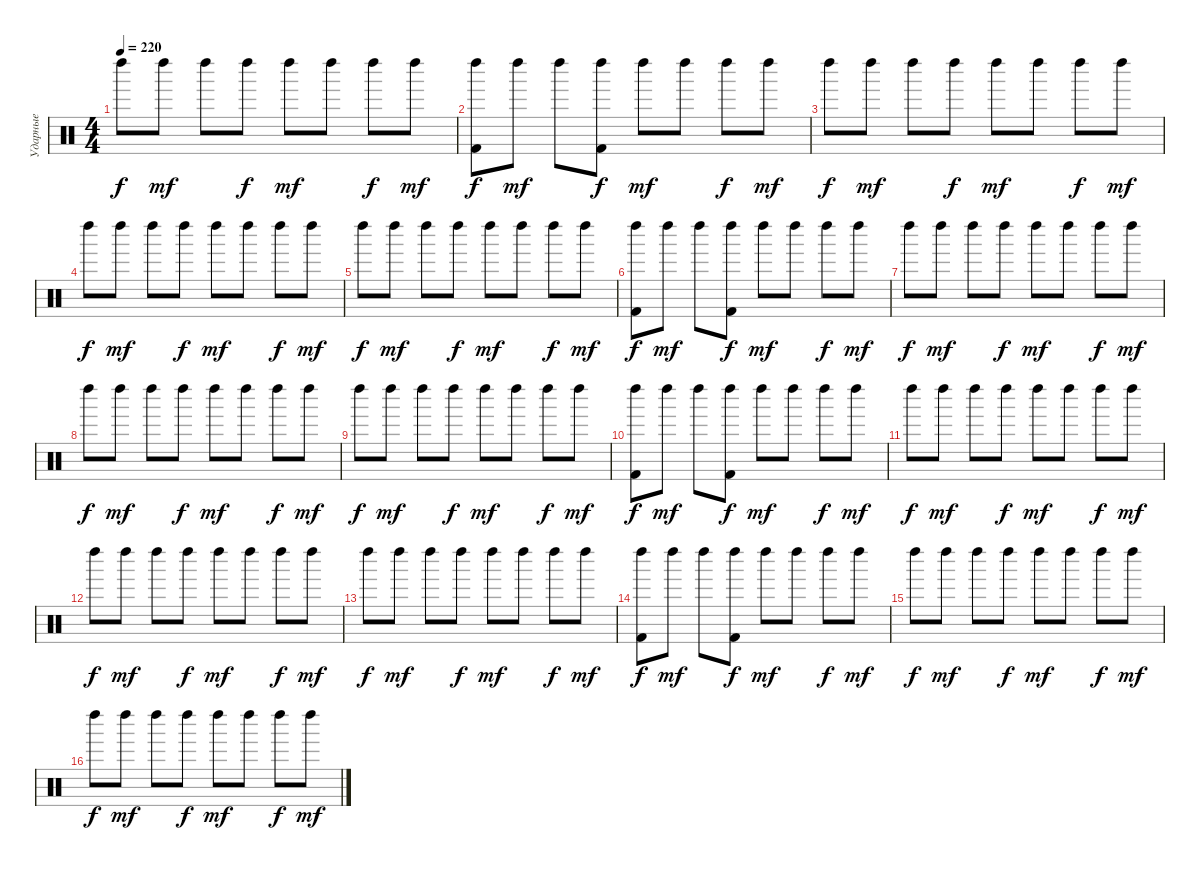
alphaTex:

\track ("Ударные" "Ударные") {instrument percussion}
\staff {score}
\articulation defaults
\ts (4 4)
\tempo 220
\clef neutral
\ks c "Left Maraca (hit)".8{dy f} "Left Maraca (hit)".8{dy mf} "Left Maraca (hit)".8 "Left Maraca (hit)".8{dy f} "Left Maraca (hit)".8{dy mf} "Left Maraca (hit)".8 "Left Maraca (hit)".8{dy f} "Left Maraca (hit)".8{dy mf}
|
("Kick (hit) 2" "Left Maraca (hit)").8{dy f} "Left Maraca (hit)".8{dy mf} "Left Maraca (hit)".8 ("Kick (hit) 2" "Left Maraca (hit)").8{dy f} "Left Maraca (hit)".8{dy mf} "Left Maraca (hit)".8 "Left Maraca (hit)".8{dy f} "Left Maraca (hit)".8{dy mf} |
"Left Maraca (hit)".8{dy f} "Left Maraca (hit)".8{dy mf} "Left Maraca (hit)".8 "Left Maraca (hit)".8{dy f} "Left Maraca (hit)".8{dy mf} "Left Maraca (hit)".8 "Left Maraca (hit)".8{dy f} "Left Maraca (hit)".8{dy mf} |
"Left Maraca (hit)".8{dy f} "Left Maraca (hit)".8{dy mf} "Left Maraca (hit)".8 "Left Maraca (hit)".8{dy f} "Left Maraca (hit)".8{dy mf} "Left Maraca (hit)".8 "Left Maraca (hit)".8{dy f} "Left Maraca (hit)".8{dy mf} |
"Left Maraca (hit)".8{dy f} "Left Maraca (hit)".8{dy mf} "Left Maraca (hit)".8 "Left Maraca (hit)".8{dy f} "Left Maraca (hit)".8{dy mf} "Left Maraca (hit)".8 "Left Maraca (hit)".8{dy f} "Left Maraca (hit)".8{dy mf} |
("Left Maraca (hit)" "Kick (hit) 2").8{dy f} "Left Maraca (hit)".8{dy mf} "Left Maraca (hit)".8 ("Left Maraca (hit)" "Kick (hit) 2").8{dy f} "Left Maraca (hit)".8{dy mf} "Left Maraca (hit)".8 "Left Maraca (hit)".8{dy f} "Left Maraca (hit)".8{dy mf} |
"Left Maraca (hit)".8{dy f} "Left Maraca (hit)".8{dy mf} "Left Maraca (hit)".8 "Left Maraca (hit)".8{dy f} "Left Maraca (hit)".8{dy mf} "Left Maraca (hit)".8 "Left Maraca (hit)".8{dy f} "Left Maraca (hit)".8{dy mf} |
"Left Maraca (hit)".8{dy f} "Left Maraca (hit)".8{dy mf} "Left Maraca (hit)".8 "Left Maraca (hit)".8{dy f} "Left Maraca (hit)".8{dy mf} "Left Maraca (hit)".8 "Left Maraca (hit)".8{dy f} "Left Maraca (hit)".8{dy mf} |
"Left Maraca (hit)".8{dy f} "Left Maraca (hit)".8{dy mf} "Left Maraca (hit)".8 "Left Maraca (hit)".8{dy f} "Left Maraca (hit)".8{dy mf} "Left Maraca (hit)".8 "Left Maraca (hit)".8{dy f} "Left Maraca (hit)".8{dy mf} |
("Kick (hit) 2" "Left Maraca (hit)").8{dy f} "Left Maraca (hit)".8{dy mf} "Left Maraca (hit)".8 ("Kick (hit) 2" "Left Maraca (hit)").8{dy f} "Left Maraca (hit)".8{dy mf} "Left Maraca (hit)".8 "Left Maraca (hit)".8{dy f} "Left Maraca (hit)".8{dy mf} |
"Left Maraca (hit)".8{dy f} "Left Maraca (hit)".8{dy mf} "Left Maraca (hit)".8 "Left Maraca (hit)".8{dy f} "Left Maraca (hit)".8{dy mf} "Left Maraca (hit)".8 "Left Maraca (hit)".8{dy f} "Left Maraca (hit)".8{dy mf} |
"Left Maraca (hit)".8{dy f} "Left Maraca (hit)".8{dy mf} "Left Maraca (hit)".8 "Left Maraca (hit)".8{dy f} "Left Maraca (hit)".8{dy mf} "Left Maraca (hit)".8 "Left Maraca (hit)".8{dy f} "Left Maraca (hit)".8{dy mf} |
"Left Maraca (hit)".8{dy f} "Left Maraca (hit)".8{dy mf} "Left Maraca (hit)".8 "Left Maraca (hit)".8{dy f} "Left Maraca (hit)".8{dy mf} "Left Maraca (hit)".8 "Left Maraca (hit)".8{dy f} "Left Maraca (hit)".8{dy mf} |
("Left Maraca (hit)" "Kick (hit) 2").8{dy f} "Left Maraca (hit)".8{dy mf} "Left Maraca (hit)".8 ("Left Maraca (hit)" "Kick (hit) 2").8{dy f} "Left Maraca (hit)".8{dy mf} "Left Maraca (hit)".8 "Left Maraca (hit)".8{dy f} "Left Maraca (hit)".8{dy mf} |
"Left Maraca (hit)".8{dy f} "Left Maraca (hit)".8{dy mf} "Left Maraca (hit)".8 "Left Maraca (hit)".8{dy f} "Left Maraca (hit)".8{dy mf} "Left Maraca (hit)".8 "Left Maraca (hit)".8{dy f} "Left Maraca (hit)".8{dy mf} |
"Left Maraca (hit)".8{dy f} "Left Maraca (hit)".8{dy mf} "Left Maraca (hit)".8 "Left Maraca (hit)".8{dy f} "Left Maraca (hit)".8{dy mf} "Left Maraca (hit)".8 "Left Maraca (hit)".8{dy f} "Left Maraca (hit)".8{dy mf}
